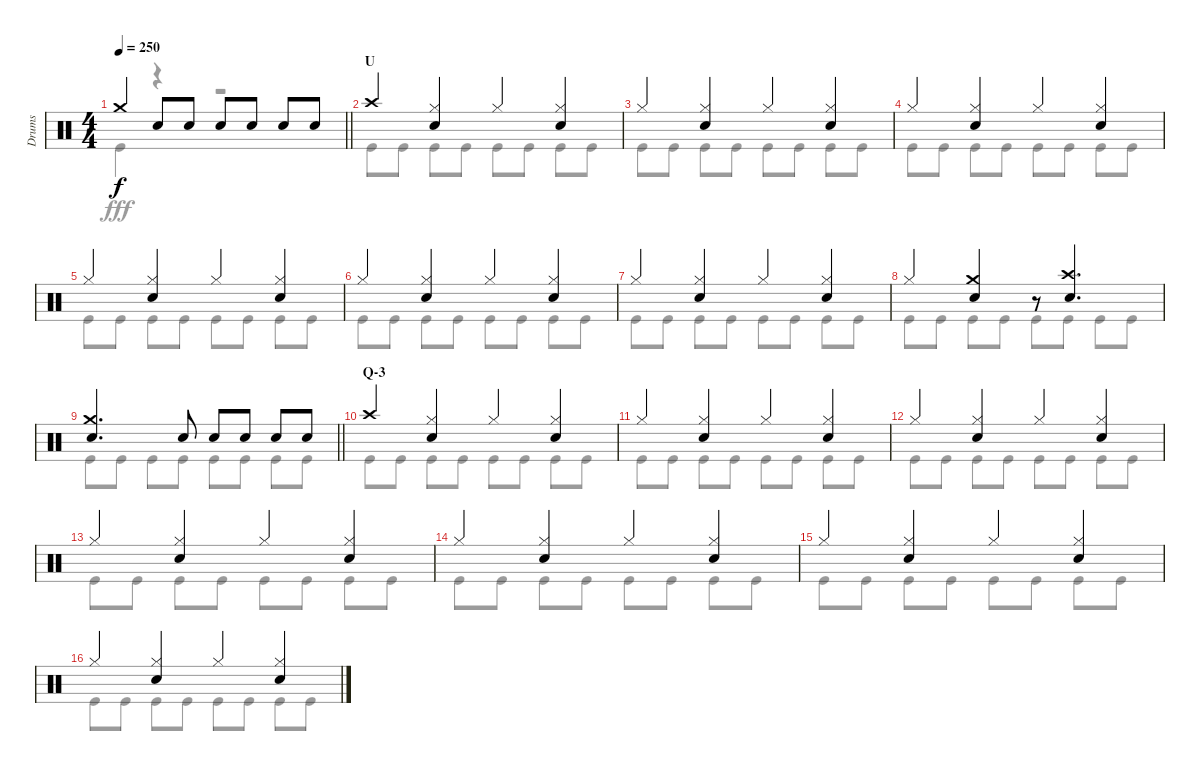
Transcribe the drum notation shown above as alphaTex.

\track ("Drums" "Drums") {instrument percussion}
\staff {score}
\articulation defaults
\voice
\ts (4 4)
\tempo 250
\clef neutral
\barLineRight lightlight
\ks c "Crash medium (hit)".4{dy f} "Snare (hit) 2".8 "Snare (hit) 2".8 "Snare (hit) 2".8 "Snare (hit) 2".8 "Snare (hit) 2".8 "Snare (hit) 2".8
|
\section ("" "U")
"Crash high (hit)".4 ("Hi-Hat (closed)" "Snare (hit) 2").4 "Hi-Hat (closed)".4 ("Hi-Hat (closed)" "Snare (hit) 2").4 |
"Hi-Hat (closed)".4 ("Hi-Hat (closed)" "Snare (hit) 2").4 "Hi-Hat (closed)".4 ("Hi-Hat (closed)" "Snare (hit) 2").4 |
"Hi-Hat (closed)".4 ("Hi-Hat (closed)" "Snare (hit) 2").4 "Hi-Hat (closed)".4 ("Hi-Hat (closed)" "Snare (hit) 2").4 |
"Hi-Hat (closed)".4 ("Hi-Hat (closed)" "Snare (hit) 2").4 "Hi-Hat (closed)".4 ("Hi-Hat (closed)" "Snare (hit) 2").4 |
"Hi-Hat (closed)".4 ("Hi-Hat (closed)" "Snare (hit) 2").4 "Hi-Hat (closed)".4 ("Hi-Hat (closed)" "Snare (hit) 2").4 |
"Hi-Hat (closed)".4 ("Hi-Hat (closed)" "Snare (hit) 2").4 "Hi-Hat (closed)".4 ("Hi-Hat (closed)" "Snare (hit) 2").4 |
"Hi-Hat (closed)".4 ("Crash medium (hit)" "Snare (hit) 2").4 r.8 ("Crash high (hit)" "Snare (hit) 2").4{d} |
\barLineRight lightlight
("Crash medium (hit)" "Snare (hit) 2").4{d} "Snare (hit) 2".8 "Snare (hit) 2".8 "Snare (hit) 2".8 "Snare (hit) 2".8 "Snare (hit) 2".8 |
\section ("" "Q-3")
"Crash high (hit)".4 ("Hi-Hat (closed)" "Snare (hit) 2").4 "Hi-Hat (closed)".4 ("Hi-Hat (closed)" "Snare (hit) 2").4 |
"Hi-Hat (closed)".4 ("Hi-Hat (closed)" "Snare (hit) 2").4 "Hi-Hat (closed)".4 ("Hi-Hat (closed)" "Snare (hit) 2").4 |
"Hi-Hat (closed)".4 ("Hi-Hat (closed)" "Snare (hit) 2").4 "Hi-Hat (closed)".4 ("Hi-Hat (closed)" "Snare (hit) 2").4 |
"Hi-Hat (closed)".4 ("Hi-Hat (closed)" "Snare (hit) 2").4 "Hi-Hat (closed)".4 ("Hi-Hat (closed)" "Snare (hit) 2").4 |
"Hi-Hat (closed)".4 ("Hi-Hat (closed)" "Snare (hit) 2").4 "Hi-Hat (closed)".4 ("Hi-Hat (closed)" "Snare (hit) 2").4 |
"Hi-Hat (closed)".4 ("Hi-Hat (closed)" "Snare (hit) 2").4 "Hi-Hat (closed)".4 ("Hi-Hat (closed)" "Snare (hit) 2").4 |
"Hi-Hat (closed)".4 ("Hi-Hat (closed)" "Snare (hit) 2").4 "Hi-Hat (closed)".4 ("Hi-Hat (closed)" "Snare (hit) 2").4
\voice
\clef neutral
\ottava regular
\simile none
\barLineRight lightlight
\ks c "Kick (hit)".4{dy fff}
r.4 r.2 |
"Kick (hit)".8 "Kick (hit)".8 "Kick (hit)".8 "Kick (hit)".8 "Kick (hit)".8 "Kick (hit)".8 "Kick (hit)".8 "Kick (hit)".8 |
"Kick (hit)".8 "Kick (hit)".8 "Kick (hit)".8 "Kick (hit)".8 "Kick (hit)".8 "Kick (hit)".8 "Kick (hit)".8 "Kick (hit)".8 |
"Kick (hit)".8 "Kick (hit)".8 "Kick (hit)".8 "Kick (hit)".8 "Kick (hit)".8 "Kick (hit)".8 "Kick (hit)".8 "Kick (hit)".8 |
"Kick (hit)".8 "Kick (hit)".8 "Kick (hit)".8 "Kick (hit)".8 "Kick (hit)".8 "Kick (hit)".8 "Kick (hit)".8 "Kick (hit)".8 |
"Kick (hit)".8 "Kick (hit)".8 "Kick (hit)".8 "Kick (hit)".8 "Kick (hit)".8 "Kick (hit)".8 "Kick (hit)".8 "Kick (hit)".8 |
"Kick (hit)".8 "Kick (hit)".8 "Kick (hit)".8 "Kick (hit)".8 "Kick (hit)".8 "Kick (hit)".8 "Kick (hit)".8 "Kick (hit)".8 |
"Kick (hit)".8 "Kick (hit)".8 "Kick (hit)".8 "Kick (hit)".8 "Kick (hit)".8 "Kick (hit)".8 "Kick (hit)".8 "Kick (hit)".8 |
\barLineRight lightlight "Kick (hit)".8 "Kick (hit)".8 "Kick (hit)".8 "Kick (hit)".8 "Kick (hit)".8 "Kick (hit)".8 "Kick (hit)".8 "Kick (hit)".8
|
"Kick (hit)".8 "Kick (hit)".8 "Kick (hit)".8 "Kick (hit)".8 "Kick (hit)".8 "Kick (hit)".8 "Kick (hit)".8 "Kick (hit)".8 |
"Kick (hit)".8 "Kick (hit)".8 "Kick (hit)".8 "Kick (hit)".8 "Kick (hit)".8 "Kick (hit)".8 "Kick (hit)".8 "Kick (hit)".8 |
"Kick (hit)".8 "Kick (hit)".8 "Kick (hit)".8 "Kick (hit)".8 "Kick (hit)".8 "Kick (hit)".8 "Kick (hit)".8 "Kick (hit)".8 |
"Kick (hit)".8 "Kick (hit)".8 "Kick (hit)".8 "Kick (hit)".8 "Kick (hit)".8 "Kick (hit)".8 "Kick (hit)".8 "Kick (hit)".8 |
"Kick (hit)".8 "Kick (hit)".8 "Kick (hit)".8 "Kick (hit)".8 "Kick (hit)".8 "Kick (hit)".8 "Kick (hit)".8 "Kick (hit)".8 |
"Kick (hit)".8 "Kick (hit)".8 "Kick (hit)".8 "Kick (hit)".8 "Kick (hit)".8 "Kick (hit)".8 "Kick (hit)".8 "Kick (hit)".8 |
"Kick (hit)".8 "Kick (hit)".8 "Kick (hit)".8 "Kick (hit)".8 "Kick (hit)".8 "Kick (hit)".8 "Kick (hit)".8 "Kick (hit)".8
